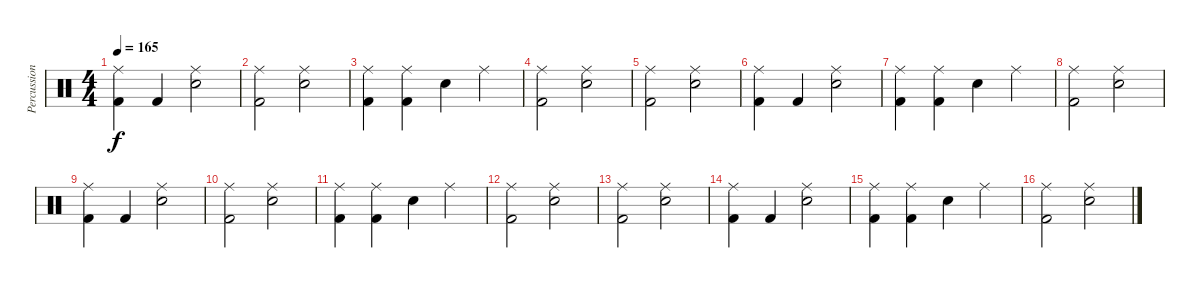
\track ("Percussion" "Percussion") {instrument percussion}
\staff {score}
\articulation defaults
\ts (4 4)
\tempo 165
\clef neutral
\ks c
("Ride (middle)" "Kick (hit) 2").4{dy f} "Kick (hit) 2".4 ("Ride (middle)" "Snare (hit) 2").2 |
("Ride (middle)" "Kick (hit) 2").2 ("Ride (middle)" "Snare (hit) 2").2 |
("Ride (middle)" "Kick (hit) 2").4 ("Ride (middle)" "Kick (hit) 2").4 "Snare (hit) 2".4 "Ride (middle)".4 |
("Ride (middle)" "Kick (hit) 2").2 ("Ride (middle)" "Snare (hit) 2").2 |
("Ride (middle)" "Kick (hit) 2").2 ("Ride (middle)" "Snare (hit) 2").2 |
("Ride (middle)" "Kick (hit) 2").4 "Kick (hit) 2".4 ("Ride (middle)" "Snare (hit) 2").2 |
("Ride (middle)" "Kick (hit) 2").4 ("Ride (middle)" "Kick (hit) 2").4 "Snare (hit) 2".4 "Ride (middle)".4 |
("Ride (middle)" "Kick (hit) 2").2 ("Ride (middle)" "Snare (hit) 2").2 |
("Ride (middle)" "Kick (hit) 2").4 "Kick (hit) 2".4 ("Ride (middle)" "Snare (hit) 2").2 |
("Ride (middle)" "Kick (hit) 2").2 ("Ride (middle)" "Snare (hit) 2").2 |
("Ride (middle)" "Kick (hit) 2").4 ("Ride (middle)" "Kick (hit) 2").4 "Snare (hit) 2".4 "Ride (middle)".4 |
("Ride (middle)" "Kick (hit) 2").2 ("Ride (middle)" "Snare (hit) 2").2 |
("Ride (middle)" "Kick (hit) 2").2 ("Ride (middle)" "Snare (hit) 2").2 |
("Ride (middle)" "Kick (hit) 2").4 "Kick (hit) 2".4 ("Ride (middle)" "Snare (hit) 2").2 |
("Ride (middle)" "Kick (hit) 2").4 ("Ride (middle)" "Kick (hit) 2").4 "Snare (hit) 2".4 "Ride (middle)".4 |
("Ride (middle)" "Kick (hit) 2").2 ("Ride (middle)" "Snare (hit) 2").2
